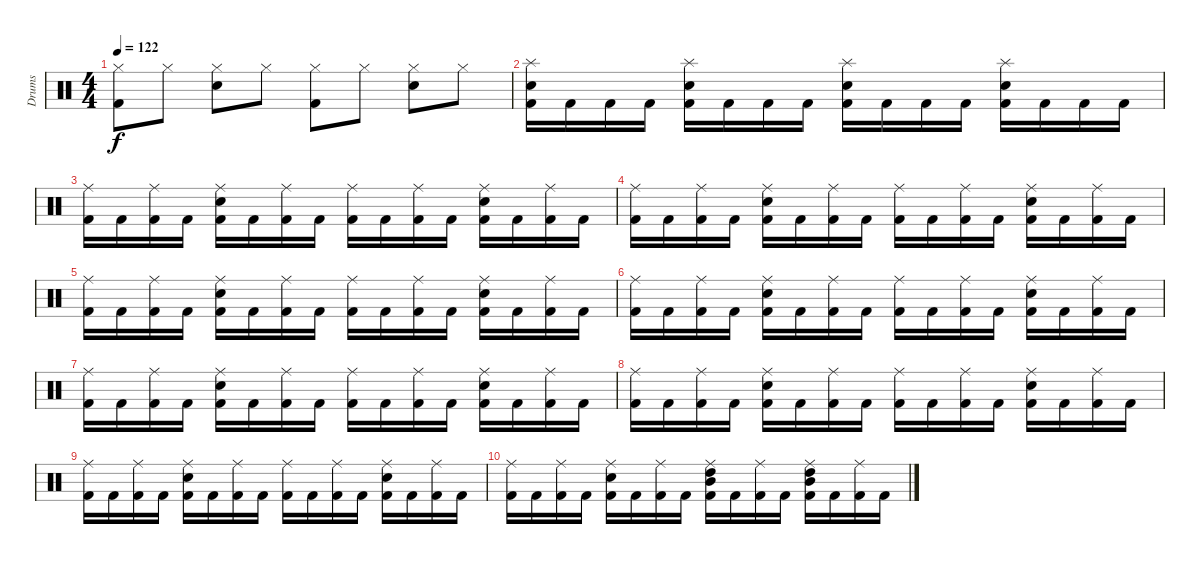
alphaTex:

\track ("Drums" "Drums") {instrument percussion}
\staff {score}
\articulation defaults
\ts (4 4)
\tempo 122
\clef neutral
\ks c
("Hi-Hat (closed)" "Kick (hit) 2").8{dy f} "Hi-Hat (closed)".8 ("Hi-Hat (closed)" "Electric Snare (hit)").8 "Hi-Hat (closed)".8 ("Hi-Hat (closed)" "Kick (hit) 2").8 "Hi-Hat (closed)".8 ("Hi-Hat (closed)" "Electric Snare (hit)").8 "Hi-Hat (closed)".8 |
("Splash (hit)" "Electric Snare (hit)" "Kick (hit) 2").16 "Kick (hit) 2".16 "Kick (hit) 2".16 "Kick (hit) 2".16 ("Splash (hit)" "Electric Snare (hit)" "Kick (hit) 2").16 "Kick (hit) 2".16 "Kick (hit) 2".16 "Kick (hit) 2".16 ("Splash (hit)" "Electric Snare (hit)" "Kick (hit) 2").16 "Kick (hit) 2".16 "Kick (hit) 2".16 "Kick (hit) 2".16 ("Splash (hit)" "Electric Snare (hit)" "Kick (hit) 2").16 "Kick (hit) 2".16 "Kick (hit) 2".16 "Kick (hit) 2".16 |
("Ride (middle)" "Kick (hit) 2").16 "Kick (hit) 2".16 ("Ride (middle)" "Kick (hit) 2").16 "Kick (hit) 2".16 ("Ride (middle)" "Electric Snare (hit)" "Kick (hit) 2").16 "Kick (hit) 2".16 ("Ride (middle)" "Kick (hit) 2").16 "Kick (hit) 2".16 ("Ride (middle)" "Kick (hit) 2").16 "Kick (hit) 2".16 ("Ride (middle)" "Kick (hit) 2").16 "Kick (hit) 2".16 ("Ride (middle)" "Electric Snare (hit)" "Kick (hit) 2").16 "Kick (hit) 2".16 ("Ride (middle)" "Kick (hit) 2").16 "Kick (hit) 2".16 |
("Ride (middle)" "Kick (hit) 2").16 "Kick (hit) 2".16 ("Ride (middle)" "Kick (hit) 2").16 "Kick (hit) 2".16 ("Ride (middle)" "Electric Snare (hit)" "Kick (hit) 2").16 "Kick (hit) 2".16 ("Ride (middle)" "Kick (hit) 2").16 "Kick (hit) 2".16 ("Ride (middle)" "Kick (hit) 2").16 "Kick (hit) 2".16 ("Ride (middle)" "Kick (hit) 2").16 "Kick (hit) 2".16 ("Ride (middle)" "Electric Snare (hit)" "Kick (hit) 2").16 "Kick (hit) 2".16 ("Ride (middle)" "Kick (hit) 2").16 "Kick (hit) 2".16 |
("Ride (middle)" "Kick (hit) 2").16 "Kick (hit) 2".16 ("Ride (middle)" "Kick (hit) 2").16 "Kick (hit) 2".16 ("Ride (middle)" "Electric Snare (hit)" "Kick (hit) 2").16 "Kick (hit) 2".16 ("Ride (middle)" "Kick (hit) 2").16 "Kick (hit) 2".16 ("Ride (middle)" "Kick (hit) 2").16 "Kick (hit) 2".16 ("Ride (middle)" "Kick (hit) 2").16 "Kick (hit) 2".16 ("Ride (middle)" "Electric Snare (hit)" "Kick (hit) 2").16 "Kick (hit) 2".16 ("Ride (middle)" "Kick (hit) 2").16 "Kick (hit) 2".16 |
("Ride (middle)" "Kick (hit) 2").16 "Kick (hit) 2".16 ("Ride (middle)" "Kick (hit) 2").16 "Kick (hit) 2".16 ("Ride (middle)" "Electric Snare (hit)" "Kick (hit) 2").16 "Kick (hit) 2".16 ("Ride (middle)" "Kick (hit) 2").16 "Kick (hit) 2".16 ("Ride (middle)" "Kick (hit) 2").16 "Kick (hit) 2".16 ("Ride (middle)" "Kick (hit) 2").16 "Kick (hit) 2".16 ("Ride (middle)" "Electric Snare (hit)" "Kick (hit) 2").16 "Kick (hit) 2".16 ("Ride (middle)" "Kick (hit) 2").16 "Kick (hit) 2".16 |
("Ride (middle)" "Kick (hit) 2").16 "Kick (hit) 2".16 ("Ride (middle)" "Kick (hit) 2").16 "Kick (hit) 2".16 ("Ride (middle)" "Electric Snare (hit)" "Kick (hit) 2").16 "Kick (hit) 2".16 ("Ride (middle)" "Kick (hit) 2").16 "Kick (hit) 2".16 ("Ride (middle)" "Kick (hit) 2").16 "Kick (hit) 2".16 ("Ride (middle)" "Kick (hit) 2").16 "Kick (hit) 2".16 ("Ride (middle)" "Electric Snare (hit)" "Kick (hit) 2").16 "Kick (hit) 2".16 ("Ride (middle)" "Kick (hit) 2").16 "Kick (hit) 2".16 |
("Ride (middle)" "Kick (hit) 2").16 "Kick (hit) 2".16 ("Ride (middle)" "Kick (hit) 2").16 "Kick (hit) 2".16 ("Ride (middle)" "Electric Snare (hit)" "Kick (hit) 2").16 "Kick (hit) 2".16 ("Ride (middle)" "Kick (hit) 2").16 "Kick (hit) 2".16 ("Ride (middle)" "Kick (hit) 2").16 "Kick (hit) 2".16 ("Ride (middle)" "Kick (hit) 2").16 "Kick (hit) 2".16 ("Ride (middle)" "Electric Snare (hit)" "Kick (hit) 2").16 "Kick (hit) 2".16 ("Ride (middle)" "Kick (hit) 2").16 "Kick (hit) 2".16 |
("Ride (middle)" "Kick (hit) 2").16 "Kick (hit) 2".16 ("Ride (middle)" "Kick (hit) 2").16 "Kick (hit) 2".16 ("Ride (middle)" "Electric Snare (hit)" "Kick (hit) 2").16 "Kick (hit) 2".16 ("Ride (middle)" "Kick (hit) 2").16 "Kick (hit) 2".16 ("Ride (middle)" "Kick (hit) 2").16 "Kick (hit) 2".16 ("Ride (middle)" "Kick (hit) 2").16 "Kick (hit) 2".16 ("Ride (middle)" "Electric Snare (hit)" "Kick (hit) 2").16 "Kick (hit) 2".16 ("Ride (middle)" "Kick (hit) 2").16 "Kick (hit) 2".16 |
("Ride (middle)" "Kick (hit) 2").16 "Kick (hit) 2".16 ("Ride (middle)" "Kick (hit) 2").16 "Kick (hit) 2".16 ("Ride (middle)" "Electric Snare (hit)" "Kick (hit) 2").16 "Kick (hit) 2".16 ("Ride (middle)" "Kick (hit) 2").16 "Kick (hit) 2".16 ("Ride (middle)" "High Tom (hit)" "Mid Tom (hit)" "Kick (hit) 2").16 "Kick (hit) 2".16 ("Ride (middle)" "Kick (hit) 2").16 "Kick (hit) 2".16 ("Ride (middle)" "High Tom (hit)" "Mid Tom (hit)" "Kick (hit) 2").16 "Kick (hit) 2".16 ("Ride (middle)" "Kick (hit) 2").16 "Kick (hit) 2".16
